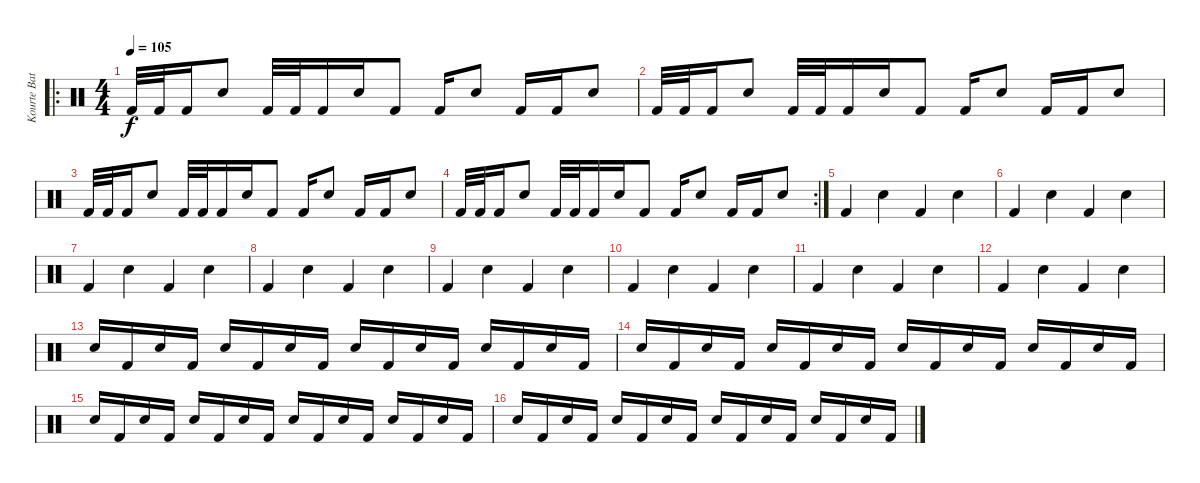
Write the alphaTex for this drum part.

\track ("Kourte Batt" "Kourte Bat") {instrument percussion}
\staff {score}
\articulation defaults
\ro
\ts (4 4)
\tempo 105
\clef neutral
\ks c "Kick (hit) 2".32{dy f} "Kick (hit) 2".32 "Kick (hit) 2".16 "Electric Snare (hit)".8 "Kick (hit) 2".32 "Kick (hit) 2".32 "Kick (hit) 2".16 "Electric Snare (hit)".16 "Kick (hit) 2".8 "Kick (hit) 2".16 "Electric Snare (hit)".8 "Kick (hit) 2".16 "Kick (hit) 2".16 "Electric Snare (hit)".8
|
"Kick (hit) 2".32 "Kick (hit) 2".32 "Kick (hit) 2".16 "Electric Snare (hit)".8 "Kick (hit) 2".32 "Kick (hit) 2".32 "Kick (hit) 2".16 "Electric Snare (hit)".16 "Kick (hit) 2".8 "Kick (hit) 2".16 "Electric Snare (hit)".8 "Kick (hit) 2".16 "Kick (hit) 2".16 "Electric Snare (hit)".8 |
"Kick (hit) 2".32 "Kick (hit) 2".32 "Kick (hit) 2".16 "Electric Snare (hit)".8 "Kick (hit) 2".32 "Kick (hit) 2".32 "Kick (hit) 2".16 "Electric Snare (hit)".16 "Kick (hit) 2".8 "Kick (hit) 2".16 "Electric Snare (hit)".8 "Kick (hit) 2".16 "Kick (hit) 2".16 "Electric Snare (hit)".8 |
\rc 2 "Kick (hit) 2".32 "Kick (hit) 2".32 "Kick (hit) 2".16 "Electric Snare (hit)".8 "Kick (hit) 2".32 "Kick (hit) 2".32 "Kick (hit) 2".16 "Electric Snare (hit)".16 "Kick (hit) 2".8 "Kick (hit) 2".16 "Electric Snare (hit)".8 "Kick (hit) 2".16 "Kick (hit) 2".16 "Electric Snare (hit)".8
|
"Kick (hit) 2".4 "Electric Snare (hit)".4 "Kick (hit) 2".4 "Electric Snare (hit)".4 |
"Kick (hit) 2".4 "Electric Snare (hit)".4 "Kick (hit) 2".4 "Electric Snare (hit)".4 |
"Kick (hit) 2".4 "Electric Snare (hit)".4 "Kick (hit) 2".4 "Electric Snare (hit)".4 |
"Kick (hit) 2".4 "Electric Snare (hit)".4 "Kick (hit) 2".4 "Electric Snare (hit)".4 |
"Kick (hit) 2".4 "Electric Snare (hit)".4 "Kick (hit) 2".4 "Electric Snare (hit)".4 |
"Kick (hit) 2".4 "Electric Snare (hit)".4 "Kick (hit) 2".4 "Electric Snare (hit)".4 |
"Kick (hit) 2".4 "Electric Snare (hit)".4 "Kick (hit) 2".4 "Electric Snare (hit)".4 |
"Kick (hit) 2".4 "Electric Snare (hit)".4 "Kick (hit) 2".4 "Electric Snare (hit)".4 |
"Electric Snare (hit)".16 "Kick (hit) 2".16 "Electric Snare (hit)".16 "Kick (hit) 2".16 "Electric Snare (hit)".16 "Kick (hit) 2".16 "Electric Snare (hit)".16 "Kick (hit) 2".16 "Electric Snare (hit)".16 "Kick (hit) 2".16 "Electric Snare (hit)".16 "Kick (hit) 2".16 "Electric Snare (hit)".16 "Kick (hit) 2".16 "Electric Snare (hit)".16 "Kick (hit) 2".16 |
"Electric Snare (hit)".16 "Kick (hit) 2".16 "Electric Snare (hit)".16 "Kick (hit) 2".16 "Electric Snare (hit)".16 "Kick (hit) 2".16 "Electric Snare (hit)".16 "Kick (hit) 2".16 "Electric Snare (hit)".16 "Kick (hit) 2".16 "Electric Snare (hit)".16 "Kick (hit) 2".16 "Electric Snare (hit)".16 "Kick (hit) 2".16 "Electric Snare (hit)".16 "Kick (hit) 2".16 |
"Electric Snare (hit)".16 "Kick (hit) 2".16 "Electric Snare (hit)".16 "Kick (hit) 2".16 "Electric Snare (hit)".16 "Kick (hit) 2".16 "Electric Snare (hit)".16 "Kick (hit) 2".16 "Electric Snare (hit)".16 "Kick (hit) 2".16 "Electric Snare (hit)".16 "Kick (hit) 2".16 "Electric Snare (hit)".16 "Kick (hit) 2".16 "Electric Snare (hit)".16 "Kick (hit) 2".16 |
"Electric Snare (hit)".16 "Kick (hit) 2".16 "Electric Snare (hit)".16 "Kick (hit) 2".16 "Electric Snare (hit)".16 "Kick (hit) 2".16 "Electric Snare (hit)".16 "Kick (hit) 2".16 "Electric Snare (hit)".16 "Kick (hit) 2".16 "Electric Snare (hit)".16 "Kick (hit) 2".16 "Electric Snare (hit)".16 "Kick (hit) 2".16 "Electric Snare (hit)".16 "Kick (hit) 2".16
